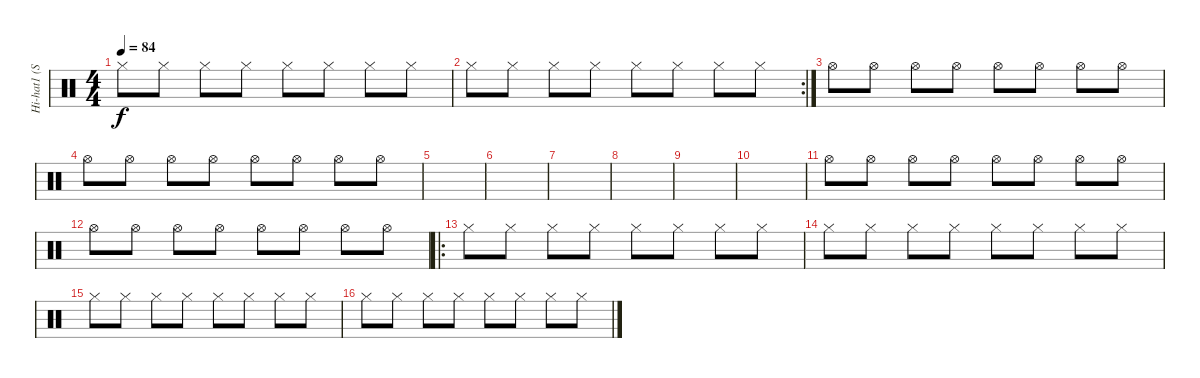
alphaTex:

\track ("Hi-hat1 (Silas)" "Hi-hat1 (S") {instrument percussion}
\staff {score}
\articulation defaults
\ts (4 4)
\tempo 84
\clef neutral
\ks c "Hi-Hat (closed)".8{dy f} "Hi-Hat (closed)".8 "Hi-Hat (closed)".8 "Hi-Hat (closed)".8 "Hi-Hat (closed)".8 "Hi-Hat (closed)".8 "Hi-Hat (closed)".8 "Hi-Hat (closed)".8
|
\rc 2 "Hi-Hat (closed)".8 "Hi-Hat (closed)".8 "Hi-Hat (closed)".8 "Hi-Hat (closed)".8 "Hi-Hat (closed)".8 "Hi-Hat (closed)".8 "Hi-Hat (closed)".8 "Hi-Hat (closed)".8
|
"Hi-Hat (open)".8 "Hi-Hat (open)".8 "Hi-Hat (open)".8 "Hi-Hat (open)".8 "Hi-Hat (open)".8 "Hi-Hat (open)".8 "Hi-Hat (open)".8 "Hi-Hat (open)".8 |
"Hi-Hat (open)".8 "Hi-Hat (open)".8 "Hi-Hat (open)".8 "Hi-Hat (open)".8 "Hi-Hat (open)".8 "Hi-Hat (open)".8 "Hi-Hat (open)".8 "Hi-Hat (open)".8 |
|
|
|
|
|
|
"Hi-Hat (open)".8 "Hi-Hat (open)".8 "Hi-Hat (open)".8 "Hi-Hat (open)".8 "Hi-Hat (open)".8 "Hi-Hat (open)".8 "Hi-Hat (open)".8 "Hi-Hat (open)".8 |
"Hi-Hat (open)".8 "Hi-Hat (open)".8 "Hi-Hat (open)".8 "Hi-Hat (open)".8 "Hi-Hat (open)".8 "Hi-Hat (open)".8 "Hi-Hat (open)".8 "Hi-Hat (open)".8 |
\ro "Hi-Hat (closed)".8 "Hi-Hat (closed)".8 "Hi-Hat (closed)".8 "Hi-Hat (closed)".8 "Hi-Hat (closed)".8 "Hi-Hat (closed)".8 "Hi-Hat (closed)".8 "Hi-Hat (closed)".8
|
"Hi-Hat (closed)".8 "Hi-Hat (closed)".8 "Hi-Hat (closed)".8 "Hi-Hat (closed)".8 "Hi-Hat (closed)".8 "Hi-Hat (closed)".8 "Hi-Hat (closed)".8 "Hi-Hat (closed)".8 |
"Hi-Hat (closed)".8 "Hi-Hat (closed)".8 "Hi-Hat (closed)".8 "Hi-Hat (closed)".8 "Hi-Hat (closed)".8 "Hi-Hat (closed)".8 "Hi-Hat (closed)".8 "Hi-Hat (closed)".8 |
"Hi-Hat (closed)".8 "Hi-Hat (closed)".8 "Hi-Hat (closed)".8 "Hi-Hat (closed)".8 "Hi-Hat (closed)".8 "Hi-Hat (closed)".8 "Hi-Hat (closed)".8 "Hi-Hat (closed)".8
